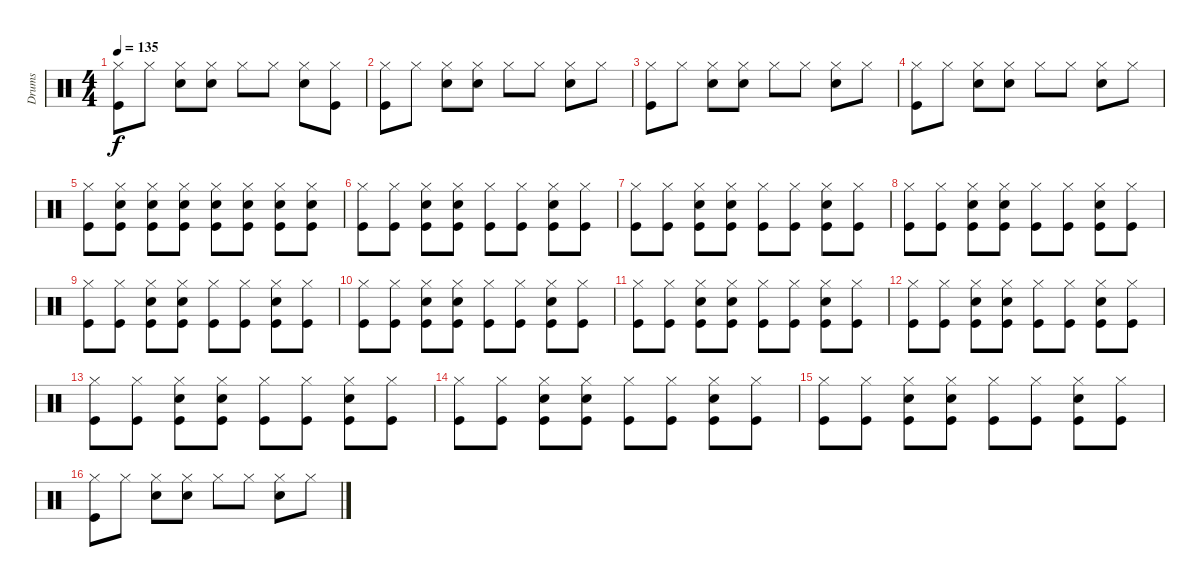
\track ("Drums" "Drums") {instrument percussion}
\staff {score}
\articulation defaults
\ts (4 4)
\tempo 135
\clef neutral
\ks c
("Hi-Hat (closed)" "Kick (hit)").8{dy f} "Hi-Hat (closed)".8 ("Hi-Hat (closed)" "Snare (hit) 2").8 ("Hi-Hat (closed)" "Snare (hit) 2").8 "Hi-Hat (closed)".8 "Hi-Hat (closed)".8 ("Hi-Hat (closed)" "Snare (hit) 2").8 ("Hi-Hat (closed)" "Kick (hit)").8 |
("Hi-Hat (closed)" "Kick (hit)").8 "Hi-Hat (closed)".8 ("Hi-Hat (closed)" "Snare (hit) 2").8 ("Hi-Hat (closed)" "Snare (hit) 2").8 "Hi-Hat (closed)".8 "Hi-Hat (closed)".8 ("Hi-Hat (closed)" "Snare (hit) 2").8 "Hi-Hat (closed)".8 |
("Hi-Hat (closed)" "Kick (hit)").8 "Hi-Hat (closed)".8 ("Hi-Hat (closed)" "Snare (hit) 2").8 ("Hi-Hat (closed)" "Snare (hit) 2").8 "Hi-Hat (closed)".8 "Hi-Hat (closed)".8 ("Hi-Hat (closed)" "Snare (hit) 2").8 "Hi-Hat (closed)".8 |
("Hi-Hat (closed)" "Kick (hit)").8 "Hi-Hat (closed)".8 ("Hi-Hat (closed)" "Snare (hit) 2").8 ("Hi-Hat (closed)" "Snare (hit) 2").8 "Hi-Hat (closed)".8 "Hi-Hat (closed)".8 ("Hi-Hat (closed)" "Snare (hit) 2").8 "Hi-Hat (closed)".8 |
("Hi-Hat (closed)" "Kick (hit)").8 ("Hi-Hat (closed)" "Snare (hit) 2" "Kick (hit)").8 ("Hi-Hat (closed)" "Snare (hit) 2" "Kick (hit)").8 ("Hi-Hat (closed)" "Snare (hit) 2" "Kick (hit)").8 ("Hi-Hat (closed)" "Snare (hit) 2" "Kick (hit)").8 ("Hi-Hat (closed)" "Snare (hit) 2" "Kick (hit)").8 ("Hi-Hat (closed)" "Snare (hit) 2" "Kick (hit)").8 ("Hi-Hat (closed)" "Snare (hit) 2" "Kick (hit)").8 |
("Hi-Hat (closed)" "Kick (hit)").8 ("Hi-Hat (closed)" "Kick (hit)").8 ("Hi-Hat (closed)" "Snare (hit) 2" "Kick (hit)").8 ("Hi-Hat (closed)" "Snare (hit) 2" "Kick (hit)").8 ("Hi-Hat (closed)" "Kick (hit)").8 ("Hi-Hat (closed)" "Kick (hit)").8 ("Hi-Hat (closed)" "Snare (hit) 2" "Kick (hit)").8 ("Hi-Hat (closed)" "Kick (hit)").8 |
("Hi-Hat (closed)" "Kick (hit)").8 ("Hi-Hat (closed)" "Kick (hit)").8 ("Hi-Hat (closed)" "Snare (hit) 2" "Kick (hit)").8 ("Hi-Hat (closed)" "Snare (hit) 2" "Kick (hit)").8 ("Hi-Hat (closed)" "Kick (hit)").8 ("Hi-Hat (closed)" "Kick (hit)").8 ("Hi-Hat (closed)" "Snare (hit) 2" "Kick (hit)").8 ("Hi-Hat (closed)" "Kick (hit)").8 |
("Hi-Hat (closed)" "Kick (hit)").8 ("Hi-Hat (closed)" "Kick (hit)").8 ("Hi-Hat (closed)" "Snare (hit) 2" "Kick (hit)").8 ("Hi-Hat (closed)" "Snare (hit) 2" "Kick (hit)").8 ("Hi-Hat (closed)" "Kick (hit)").8 ("Hi-Hat (closed)" "Kick (hit)").8 ("Hi-Hat (closed)" "Snare (hit) 2" "Kick (hit)").8 ("Hi-Hat (closed)" "Kick (hit)").8 |
("Hi-Hat (closed)" "Kick (hit)").8 ("Hi-Hat (closed)" "Kick (hit)").8 ("Hi-Hat (closed)" "Snare (hit) 2" "Kick (hit)").8 ("Hi-Hat (closed)" "Snare (hit) 2" "Kick (hit)").8 ("Hi-Hat (closed)" "Kick (hit)").8 ("Hi-Hat (closed)" "Kick (hit)").8 ("Hi-Hat (closed)" "Snare (hit) 2" "Kick (hit)").8 ("Hi-Hat (closed)" "Kick (hit)").8 |
("Hi-Hat (closed)" "Kick (hit)").8 ("Hi-Hat (closed)" "Kick (hit)").8 ("Hi-Hat (closed)" "Snare (hit) 2" "Kick (hit)").8 ("Hi-Hat (closed)" "Snare (hit) 2" "Kick (hit)").8 ("Hi-Hat (closed)" "Kick (hit)").8 ("Hi-Hat (closed)" "Kick (hit)").8 ("Hi-Hat (closed)" "Snare (hit) 2" "Kick (hit)").8 ("Hi-Hat (closed)" "Kick (hit)").8 |
("Hi-Hat (closed)" "Kick (hit)").8 ("Hi-Hat (closed)" "Kick (hit)").8 ("Hi-Hat (closed)" "Snare (hit) 2" "Kick (hit)").8 ("Hi-Hat (closed)" "Snare (hit) 2" "Kick (hit)").8 ("Hi-Hat (closed)" "Kick (hit)").8 ("Hi-Hat (closed)" "Kick (hit)").8 ("Hi-Hat (closed)" "Snare (hit) 2" "Kick (hit)").8 ("Hi-Hat (closed)" "Kick (hit)").8 |
("Hi-Hat (closed)" "Kick (hit)").8 ("Hi-Hat (closed)" "Kick (hit)").8 ("Hi-Hat (closed)" "Snare (hit) 2" "Kick (hit)").8 ("Hi-Hat (closed)" "Snare (hit) 2" "Kick (hit)").8 ("Hi-Hat (closed)" "Kick (hit)").8 ("Hi-Hat (closed)" "Kick (hit)").8 ("Hi-Hat (closed)" "Snare (hit) 2" "Kick (hit)").8 ("Hi-Hat (closed)" "Kick (hit)").8 |
("Hi-Hat (closed)" "Kick (hit)").8 ("Hi-Hat (closed)" "Kick (hit)").8 ("Hi-Hat (closed)" "Snare (hit) 2" "Kick (hit)").8 ("Hi-Hat (closed)" "Snare (hit) 2" "Kick (hit)").8 ("Hi-Hat (closed)" "Kick (hit)").8 ("Hi-Hat (closed)" "Kick (hit)").8 ("Hi-Hat (closed)" "Snare (hit) 2" "Kick (hit)").8 ("Hi-Hat (closed)" "Kick (hit)").8 |
("Hi-Hat (closed)" "Kick (hit)").8 ("Hi-Hat (closed)" "Kick (hit)").8 ("Hi-Hat (closed)" "Snare (hit) 2" "Kick (hit)").8 ("Hi-Hat (closed)" "Snare (hit) 2" "Kick (hit)").8 ("Hi-Hat (closed)" "Kick (hit)").8 ("Hi-Hat (closed)" "Kick (hit)").8 ("Hi-Hat (closed)" "Snare (hit) 2" "Kick (hit)").8 ("Hi-Hat (closed)" "Kick (hit)").8 |
("Hi-Hat (closed)" "Kick (hit)").8 ("Hi-Hat (closed)" "Kick (hit)").8 ("Hi-Hat (closed)" "Snare (hit) 2" "Kick (hit)").8 ("Hi-Hat (closed)" "Snare (hit) 2" "Kick (hit)").8 ("Hi-Hat (closed)" "Kick (hit)").8 ("Hi-Hat (closed)" "Kick (hit)").8 ("Hi-Hat (closed)" "Snare (hit) 2" "Kick (hit)").8 ("Hi-Hat (closed)" "Kick (hit)").8 |
("Hi-Hat (closed)" "Kick (hit)").8 "Hi-Hat (closed)".8 ("Hi-Hat (closed)" "Snare (hit) 2").8 ("Hi-Hat (closed)" "Snare (hit) 2").8 "Hi-Hat (closed)".8 "Hi-Hat (closed)".8 ("Hi-Hat (closed)" "Snare (hit) 2").8 "Hi-Hat (closed)".8
